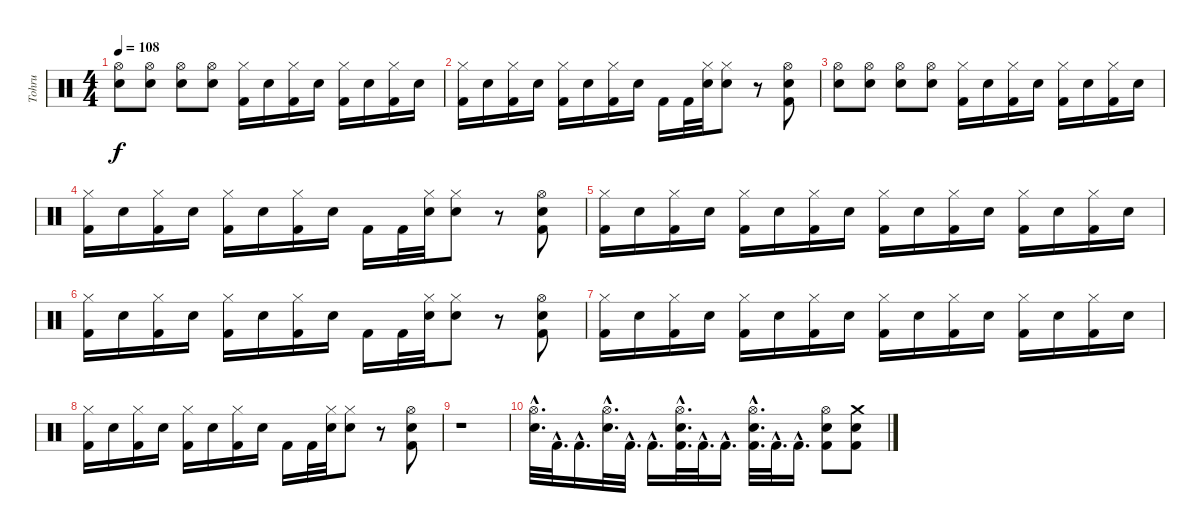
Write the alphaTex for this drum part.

\track ("Tohru" "Tohru") {instrument percussion}
\staff {score}
\articulation defaults
\ts (4 4)
\tempo 108
\clef neutral
\ks c
("Hi-Hat (open)" "Electric Snare (hit)").8{dy f} ("Hi-Hat (open)" "Electric Snare (hit)").8 ("Hi-Hat (open)" "Electric Snare (hit)").8 ("Hi-Hat (open)" "Electric Snare (hit)").8 ("Hi-Hat (closed)" "Kick (hit) 2").16 "Electric Snare (hit)".16 ("Hi-Hat (closed)" "Kick (hit) 2").16 "Electric Snare (hit)".16 ("Hi-Hat (closed)" "Kick (hit) 2").16 "Electric Snare (hit)".16 ("Hi-Hat (closed)" "Kick (hit) 2").16 "Electric Snare (hit)".16 |
("Hi-Hat (closed)" "Kick (hit) 2").16 "Electric Snare (hit)".16 ("Hi-Hat (closed)" "Kick (hit) 2").16 "Electric Snare (hit)".16 ("Hi-Hat (closed)" "Kick (hit) 2").16 "Electric Snare (hit)".16 ("Hi-Hat (closed)" "Kick (hit) 2").16 "Electric Snare (hit)".16 "Kick (hit) 2".16 "Kick (hit) 2".32 ("Hi-Hat (closed)" "Electric Snare (hit)").32 ("Hi-Hat (closed)" "Electric Snare (hit)").8 r.8 ("Kick (hit) 2" "Hi-Hat (open)" "Electric Snare (hit)").8 |
("Hi-Hat (open)" "Electric Snare (hit)").8 ("Hi-Hat (open)" "Electric Snare (hit)").8 ("Hi-Hat (open)" "Electric Snare (hit)").8 ("Hi-Hat (open)" "Electric Snare (hit)").8 ("Hi-Hat (closed)" "Kick (hit) 2").16 "Electric Snare (hit)".16 ("Hi-Hat (closed)" "Kick (hit) 2").16 "Electric Snare (hit)".16 ("Hi-Hat (closed)" "Kick (hit) 2").16 "Electric Snare (hit)".16 ("Hi-Hat (closed)" "Kick (hit) 2").16 "Electric Snare (hit)".16 |
("Hi-Hat (closed)" "Kick (hit) 2").16 "Electric Snare (hit)".16 ("Hi-Hat (closed)" "Kick (hit) 2").16 "Electric Snare (hit)".16 ("Hi-Hat (closed)" "Kick (hit) 2").16 "Electric Snare (hit)".16 ("Hi-Hat (closed)" "Kick (hit) 2").16 "Electric Snare (hit)".16 "Kick (hit) 2".16 "Kick (hit) 2".32 ("Hi-Hat (closed)" "Electric Snare (hit)").32 ("Hi-Hat (closed)" "Electric Snare (hit)").8 r.8 ("Kick (hit) 2" "Hi-Hat (open)" "Electric Snare (hit)").8 |
("Hi-Hat (closed)" "Kick (hit) 2").16 "Electric Snare (hit)".16 ("Hi-Hat (closed)" "Kick (hit) 2").16 "Electric Snare (hit)".16 ("Hi-Hat (closed)" "Kick (hit) 2").16 "Electric Snare (hit)".16 ("Hi-Hat (closed)" "Kick (hit) 2").16 "Electric Snare (hit)".16 ("Hi-Hat (closed)" "Kick (hit) 2").16 "Electric Snare (hit)".16 ("Hi-Hat (closed)" "Kick (hit) 2").16 "Electric Snare (hit)".16 ("Hi-Hat (closed)" "Kick (hit) 2").16 "Electric Snare (hit)".16 ("Hi-Hat (closed)" "Kick (hit) 2").16 "Electric Snare (hit)".16 |
("Hi-Hat (closed)" "Kick (hit) 2").16 "Electric Snare (hit)".16 ("Hi-Hat (closed)" "Kick (hit) 2").16 "Electric Snare (hit)".16 ("Hi-Hat (closed)" "Kick (hit) 2").16 "Electric Snare (hit)".16 ("Hi-Hat (closed)" "Kick (hit) 2").16 "Electric Snare (hit)".16 "Kick (hit) 2".16 "Kick (hit) 2".32 ("Hi-Hat (closed)" "Electric Snare (hit)").32 ("Hi-Hat (closed)" "Electric Snare (hit)").8 r.8 ("Kick (hit) 2" "Hi-Hat (open)" "Electric Snare (hit)").8 |
("Hi-Hat (closed)" "Kick (hit) 2").16 "Electric Snare (hit)".16 ("Hi-Hat (closed)" "Kick (hit) 2").16 "Electric Snare (hit)".16 ("Hi-Hat (closed)" "Kick (hit) 2").16 "Electric Snare (hit)".16 ("Hi-Hat (closed)" "Kick (hit) 2").16 "Electric Snare (hit)".16 ("Hi-Hat (closed)" "Kick (hit) 2").16 "Electric Snare (hit)".16 ("Hi-Hat (closed)" "Kick (hit) 2").16 "Electric Snare (hit)".16 ("Hi-Hat (closed)" "Kick (hit) 2").16 "Electric Snare (hit)".16 ("Hi-Hat (closed)" "Kick (hit) 2").16 "Electric Snare (hit)".16 |
("Hi-Hat (closed)" "Kick (hit) 2").16 "Electric Snare (hit)".16 ("Hi-Hat (closed)" "Kick (hit) 2").16 "Electric Snare (hit)".16 ("Hi-Hat (closed)" "Kick (hit) 2").16 "Electric Snare (hit)".16 ("Hi-Hat (closed)" "Kick (hit) 2").16 "Electric Snare (hit)".16 "Kick (hit) 2".16 "Kick (hit) 2".32 ("Hi-Hat (closed)" "Electric Snare (hit)").32 ("Hi-Hat (closed)" "Electric Snare (hit)").8 r.8 ("Kick (hit) 2" "Hi-Hat (open)" "Electric Snare (hit)").8 |
r.1 |
("Electric Snare (hit)"{hac} "Hi-Hat (open)"{hac}).32{d} "Kick (hit) 2"{hac}.32{d} "Kick (hit) 2"{hac}.16{d} ("Electric Snare (hit)"{hac} "Hi-Hat (open)"{hac}).32{d} "Kick (hit) 2"{hac}.32{d} "Kick (hit) 2"{hac}.16{d} ("Electric Snare (hit)"{hac} "Kick (hit) 2"{hac} "Hi-Hat (open)"{hac}).32{d} "Kick (hit) 2"{hac}.32{d} "Kick (hit) 2"{hac}.16{d} ("Electric Snare (hit)"{hac} "Kick (hit) 2"{hac} "Hi-Hat (open)"{hac}).32{d} "Kick (hit) 2"{hac}.32{d} "Kick (hit) 2"{hac}.16{d} ("Electric Snare (hit)" "Kick (hit) 2" "Hi-Hat (open)").8 ("Electric Snare (hit)" "Kick (hit) 2" "Crash medium (hit)").8
